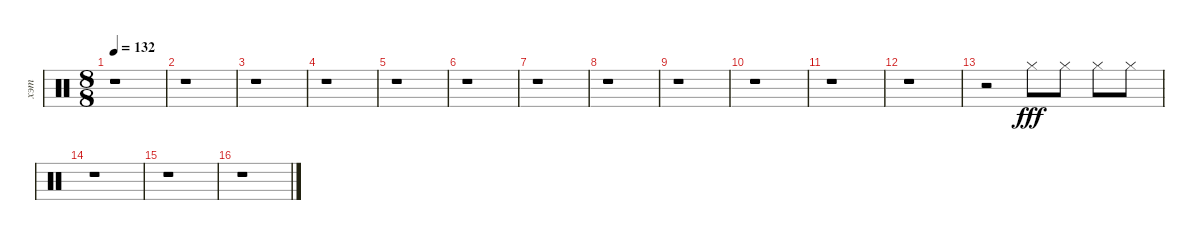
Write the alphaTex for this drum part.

\track ("хэт" "хэт") {instrument percussion}
\staff {score}
\articulation defaults
\ts (8 8)
\tempo 132
\clef neutral
\ks c
r.1{dy fff} |
r.1 |
r.1 |
r.1 |
r.1 |
r.1 |
r.1 |
r.1 |
r.1 |
r.1 |
r.1 |
r.1 |
r.2 "Hi-Hat (closed)".8 "Hi-Hat (closed)".8 "Hi-Hat (closed)".8 "Hi-Hat (closed)".8 |
r.1 |
r.1 |
r.1
